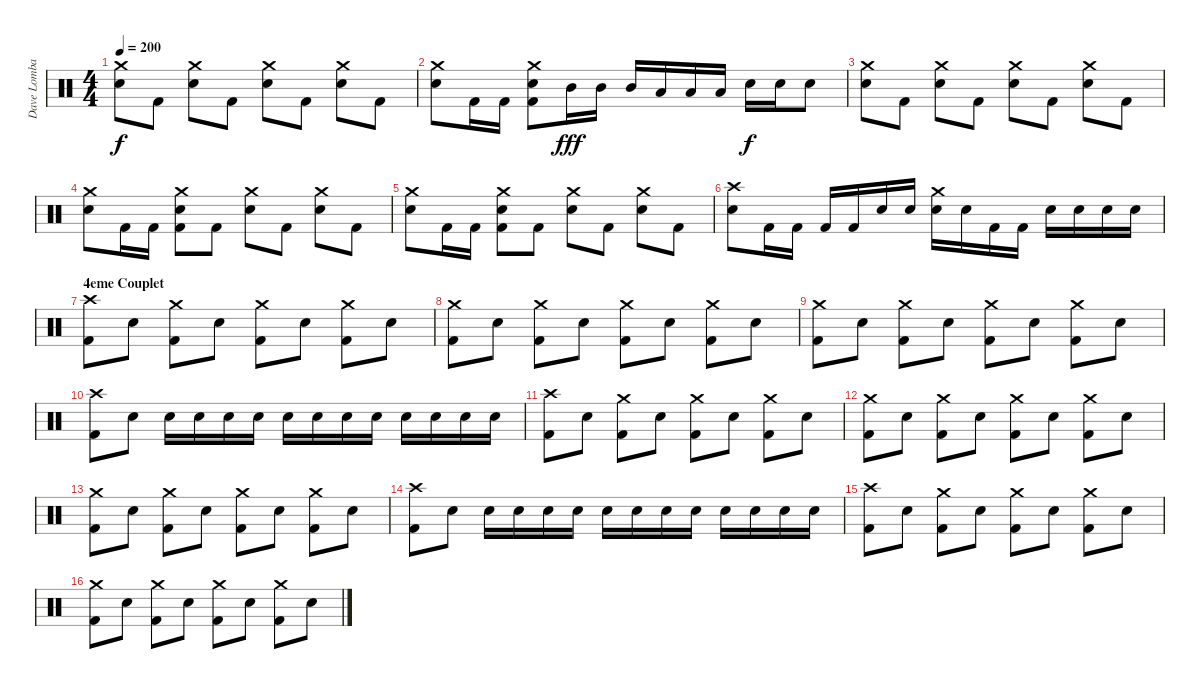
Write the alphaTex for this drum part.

\track ("Dave Lombardo - Drums" "Dave Lomba") {instrument percussion}
\staff {score}
\articulation defaults
\ts (4 4)
\tempo 200
\clef neutral
\ks c
("Crash medium (hit)" "Electric Snare (hit)").8{dy f} "Kick (hit) 2".8 ("Crash medium (hit)" "Electric Snare (hit)").8 "Kick (hit) 2".8 ("Crash medium (hit)" "Electric Snare (hit)").8 "Kick (hit) 2".8 ("Crash medium (hit)" "Electric Snare (hit)").8 "Kick (hit) 2".8 |
("Crash medium (hit)" "Electric Snare (hit)").8 "Kick (hit) 2".16 "Kick (hit) 2".16 ("Crash medium (hit)" "Electric Snare (hit)" "Kick (hit) 2").8 "Mid Tom (hit)".16{dy fff} "Mid Tom (hit)".16 "Mid Tom (hit)".16 "Low Tom (hit)".16 "Low Tom (hit)".16 "Low Tom (hit)".16 "Electric Snare (hit)".16{dy f} "Electric Snare (hit)".16 "Electric Snare (hit)".8 |
("Crash medium (hit)" "Electric Snare (hit)").8 "Kick (hit) 2".8 ("Crash medium (hit)" "Electric Snare (hit)").8 "Kick (hit) 2".8 ("Crash medium (hit)" "Electric Snare (hit)").8 "Kick (hit) 2".8 ("Crash medium (hit)" "Electric Snare (hit)").8 "Kick (hit) 2".8 |
("Crash medium (hit)" "Electric Snare (hit)").8 "Kick (hit) 2".16 "Kick (hit) 2".16 ("Crash medium (hit)" "Electric Snare (hit)" "Kick (hit) 2").8 "Kick (hit) 2".8 ("Crash medium (hit)" "Electric Snare (hit)").8 "Kick (hit) 2".8 ("Crash medium (hit)" "Electric Snare (hit)").8 "Kick (hit) 2".8 |
("Crash medium (hit)" "Electric Snare (hit)").8 "Kick (hit) 2".16 "Kick (hit) 2".16 ("Crash medium (hit)" "Electric Snare (hit)" "Kick (hit) 2").8 "Kick (hit) 2".8 ("Crash medium (hit)" "Electric Snare (hit)").8 "Kick (hit) 2".8 ("Crash medium (hit)" "Electric Snare (hit)").8 "Kick (hit) 2".8 |
("Crash high (hit)" "Electric Snare (hit)").8 "Kick (hit) 2".16 "Kick (hit) 2".16 "Kick (hit) 2".16 "Kick (hit) 2".16 "Electric Snare (hit)".16 "Electric Snare (hit)".16 ("Crash medium (hit)" "Electric Snare (hit)").16 "Electric Snare (hit)".16 "Kick (hit) 2".16 "Kick (hit) 2".16 "Electric Snare (hit)".16 "Electric Snare (hit)".16 "Electric Snare (hit)".16 "Electric Snare (hit)".16 |
\section ("" "4eme Couplet")
("Crash high (hit)" "Kick (hit) 2").8 "Electric Snare (hit)".8 ("Crash medium (hit)" "Kick (hit) 2").8 "Electric Snare (hit)".8 ("Crash medium (hit)" "Kick (hit) 2").8 "Electric Snare (hit)".8 ("Crash medium (hit)" "Kick (hit) 2").8 "Electric Snare (hit)".8 |
("Crash medium (hit)" "Kick (hit) 2").8 "Electric Snare (hit)".8 ("Crash medium (hit)" "Kick (hit) 2").8 "Electric Snare (hit)".8 ("Crash medium (hit)" "Kick (hit) 2").8 "Electric Snare (hit)".8 ("Crash medium (hit)" "Kick (hit) 2").8 "Electric Snare (hit)".8 |
("Crash medium (hit)" "Kick (hit) 2").8 "Electric Snare (hit)".8 ("Crash medium (hit)" "Kick (hit) 2").8 "Electric Snare (hit)".8 ("Crash medium (hit)" "Kick (hit) 2").8 "Electric Snare (hit)".8 ("Crash medium (hit)" "Kick (hit) 2").8 "Electric Snare (hit)".8 |
("Crash high (hit)" "Kick (hit) 2").8 "Electric Snare (hit)".8 "Electric Snare (hit)".16 "Electric Snare (hit)".16 "Electric Snare (hit)".16 "Electric Snare (hit)".16 "Electric Snare (hit)".16 "Electric Snare (hit)".16 "Electric Snare (hit)".16 "Electric Snare (hit)".16 "Electric Snare (hit)".16 "Electric Snare (hit)".16 "Electric Snare (hit)".16 "Electric Snare (hit)".16 |
("Crash high (hit)" "Kick (hit) 2").8 "Electric Snare (hit)".8 ("Crash medium (hit)" "Kick (hit) 2").8 "Electric Snare (hit)".8 ("Crash medium (hit)" "Kick (hit) 2").8 "Electric Snare (hit)".8 ("Crash medium (hit)" "Kick (hit) 2").8 "Electric Snare (hit)".8 |
("Crash medium (hit)" "Kick (hit) 2").8 "Electric Snare (hit)".8 ("Crash medium (hit)" "Kick (hit) 2").8 "Electric Snare (hit)".8 ("Crash medium (hit)" "Kick (hit) 2").8 "Electric Snare (hit)".8 ("Crash medium (hit)" "Kick (hit) 2").8 "Electric Snare (hit)".8 |
("Crash medium (hit)" "Kick (hit) 2").8 "Electric Snare (hit)".8 ("Crash medium (hit)" "Kick (hit) 2").8 "Electric Snare (hit)".8 ("Crash medium (hit)" "Kick (hit) 2").8 "Electric Snare (hit)".8 ("Crash medium (hit)" "Kick (hit) 2").8 "Electric Snare (hit)".8 |
("Crash high (hit)" "Kick (hit) 2").8 "Electric Snare (hit)".8 "Electric Snare (hit)".16 "Electric Snare (hit)".16 "Electric Snare (hit)".16 "Electric Snare (hit)".16 "Electric Snare (hit)".16 "Electric Snare (hit)".16 "Electric Snare (hit)".16 "Electric Snare (hit)".16 "Electric Snare (hit)".16 "Electric Snare (hit)".16 "Electric Snare (hit)".16 "Electric Snare (hit)".16 |
("Crash high (hit)" "Kick (hit) 2").8 "Electric Snare (hit)".8 ("Crash medium (hit)" "Kick (hit) 2").8 "Electric Snare (hit)".8 ("Crash medium (hit)" "Kick (hit) 2").8 "Electric Snare (hit)".8 ("Crash medium (hit)" "Kick (hit) 2").8 "Electric Snare (hit)".8 |
("Crash medium (hit)" "Kick (hit) 2").8 "Electric Snare (hit)".8 ("Crash medium (hit)" "Kick (hit) 2").8 "Electric Snare (hit)".8 ("Crash medium (hit)" "Kick (hit) 2").8 "Electric Snare (hit)".8 ("Crash medium (hit)" "Kick (hit) 2").8 "Electric Snare (hit)".8
